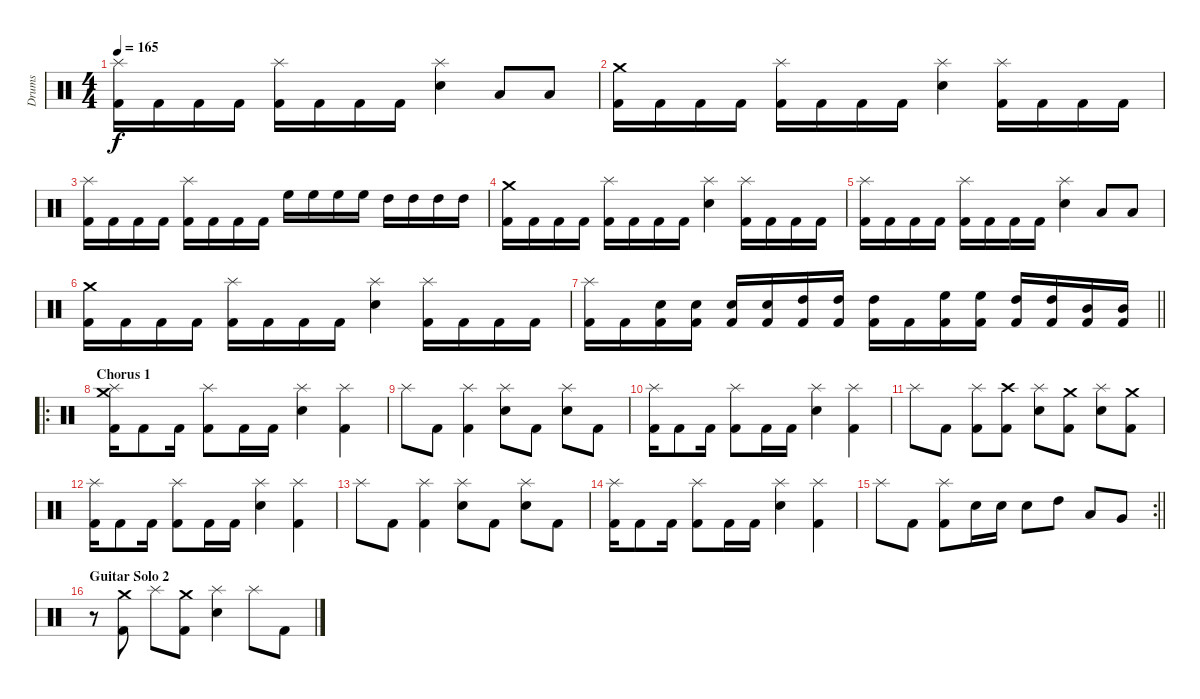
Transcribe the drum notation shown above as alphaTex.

\track ("Drums" "Drums") {instrument percussion}
\staff {score}
\articulation defaults
\ts (4 4)
\tempo 165
\clef neutral
\ks c
("Splash (hit)" "Kick (hit) 2").16{dy f} "Kick (hit) 2".16 "Kick (hit) 2".16 "Kick (hit) 2".16 ("Splash (hit)" "Kick (hit) 2").16 "Kick (hit) 2".16 "Kick (hit) 2".16 "Kick (hit) 2".16 ("Splash (hit)" "Snare (hit) 2").4 "Low Tom (hit)".8 "Low Tom (hit)".8 |
("Crash medium (hit)" "Kick (hit) 2").16 "Kick (hit) 2".16 "Kick (hit) 2".16 "Kick (hit) 2".16 ("Splash (hit)" "Kick (hit) 2").16 "Kick (hit) 2".16 "Kick (hit) 2".16 "Kick (hit) 2".16 ("Splash (hit)" "Snare (hit) 2").4 ("Splash (hit)" "Kick (hit) 2").16 "Kick (hit) 2".16 "Kick (hit) 2".16 "Kick (hit) 2".16 |
("Splash (hit)" "Kick (hit) 2").16 "Kick (hit) 2".16 "Kick (hit) 2".16 "Kick (hit) 2".16 ("Splash (hit)" "Kick (hit) 2").16 "Kick (hit) 2".16 "Kick (hit) 2".16 "Kick (hit) 2".16 "High Floor Tom (hit)".16 "High Floor Tom (hit)".16 "High Floor Tom (hit)".16 "High Floor Tom (hit)".16 "High Tom (hit)".16 "High Tom (hit)".16 "High Tom (hit)".16 "High Tom (hit)".16 |
("Crash medium (hit)" "Kick (hit) 2").16 "Kick (hit) 2".16 "Kick (hit) 2".16 "Kick (hit) 2".16 ("Splash (hit)" "Kick (hit) 2").16 "Kick (hit) 2".16 "Kick (hit) 2".16 "Kick (hit) 2".16 ("Splash (hit)" "Snare (hit) 2").4 ("Splash (hit)" "Kick (hit) 2").16 "Kick (hit) 2".16 "Kick (hit) 2".16 "Kick (hit) 2".16 |
("Splash (hit)" "Kick (hit) 2").16 "Kick (hit) 2".16 "Kick (hit) 2".16 "Kick (hit) 2".16 ("Splash (hit)" "Kick (hit) 2").16 "Kick (hit) 2".16 "Kick (hit) 2".16 "Kick (hit) 2".16 ("Splash (hit)" "Snare (hit) 2").4 "Low Tom (hit)".8 "Low Tom (hit)".8 |
("Crash medium (hit)" "Kick (hit) 2").16 "Kick (hit) 2".16 "Kick (hit) 2".16 "Kick (hit) 2".16 ("Splash (hit)" "Kick (hit) 2").16 "Kick (hit) 2".16 "Kick (hit) 2".16 "Kick (hit) 2".16 ("Splash (hit)" "Snare (hit) 2").4 ("Splash (hit)" "Kick (hit) 2").16 "Kick (hit) 2".16 "Kick (hit) 2".16 "Kick (hit) 2".16 |
\barLineRight lightlight
("Splash (hit)" "Kick (hit) 2").16 "Kick (hit) 2".16 ("Snare (hit) 2" "Kick (hit) 2").16 ("Snare (hit) 2" "Kick (hit) 2").16 ("Snare (hit) 2" "Kick (hit) 2").16 ("Snare (hit) 2" "Kick (hit) 2").16 ("High Tom (hit)" "Kick (hit) 2").16 ("High Tom (hit)" "Kick (hit) 2").16 ("High Tom (hit)" "Kick (hit) 2").16 "Kick (hit) 2".16 ("High Floor Tom (hit)" "Kick (hit) 2").16 ("High Floor Tom (hit)" "Kick (hit) 2").16 ("High Tom (hit)" "Kick (hit) 2").16 ("High Tom (hit)" "Kick (hit) 2").16 ("Mid Tom (hit)" "Kick (hit) 2").16 ("Mid Tom (hit)" "Kick (hit) 2").16 |
\ro
\section ("" "Chorus 1")
("Crash medium (hit)" "Splash (hit)" "Kick (hit) 2").16 "Kick (hit) 2".8 "Kick (hit) 2".16 ("Splash (hit)" "Kick (hit) 2").8 "Kick (hit) 2".16 "Kick (hit) 2".16 ("Splash (hit)" "Snare (hit) 2").4 ("Splash (hit)" "Kick (hit) 2").4 |
"Splash (hit)".8 "Kick (hit) 2".8 ("Splash (hit)" "Kick (hit) 2").4 ("Splash (hit)" "Snare (hit) 2").8 "Kick (hit) 2".8 ("Splash (hit)" "Snare (hit) 2").8 "Kick (hit) 2".8 |
("Splash (hit)" "Kick (hit) 2").16 "Kick (hit) 2".8 "Kick (hit) 2".16 ("Splash (hit)" "Kick (hit) 2").8 "Kick (hit) 2".16 "Kick (hit) 2".16 ("Splash (hit)" "Snare (hit) 2").4 ("Splash (hit)" "Kick (hit) 2").4 |
"Splash (hit)".8 "Kick (hit) 2".8 ("Splash (hit)" "Kick (hit) 2").8 ("Crash high (hit)" "Kick (hit) 2").8 ("Splash (hit)" "Snare (hit) 2").8 ("Crash medium (hit)" "Kick (hit) 2").8 ("Splash (hit)" "Snare (hit) 2").8 ("Crash medium (hit)" "Kick (hit) 2").8 |
("Splash (hit)" "Kick (hit) 2").16 "Kick (hit) 2".8 "Kick (hit) 2".16 ("Splash (hit)" "Kick (hit) 2").8 "Kick (hit) 2".16 "Kick (hit) 2".16 ("Splash (hit)" "Snare (hit) 2").4 ("Splash (hit)" "Kick (hit) 2").4 |
"Splash (hit)".8 "Kick (hit) 2".8 ("Splash (hit)" "Kick (hit) 2").4 ("Splash (hit)" "Snare (hit) 2").8 "Kick (hit) 2".8 ("Splash (hit)" "Snare (hit) 2").8 "Kick (hit) 2".8 |
("Splash (hit)" "Kick (hit) 2").16 "Kick (hit) 2".8 "Kick (hit) 2".16 ("Splash (hit)" "Kick (hit) 2").8 "Kick (hit) 2".16 "Kick (hit) 2".16 ("Splash (hit)" "Snare (hit) 2").4 ("Splash (hit)" "Kick (hit) 2").4 |
\rc 2
\barLineRight lightlight "Splash (hit)".8 "Kick (hit) 2".8
("Splash (hit)" "Kick (hit) 2").8 "Snare (hit) 2".16 "Snare (hit) 2".16 "Snare (hit) 2".8 "High Tom (hit)".8 "Low Tom (hit)".8 "Very Low Tom (hit)".8 |
\section ("" "Guitar Solo 2")
r.8 ("Crash medium (hit)" "Kick (hit) 2").8 "Splash (hit)".8 ("Crash medium (hit)" "Kick (hit) 2").8 ("Splash (hit)" "Snare (hit) 2").4 "Splash (hit)".8 "Kick (hit) 2".8
